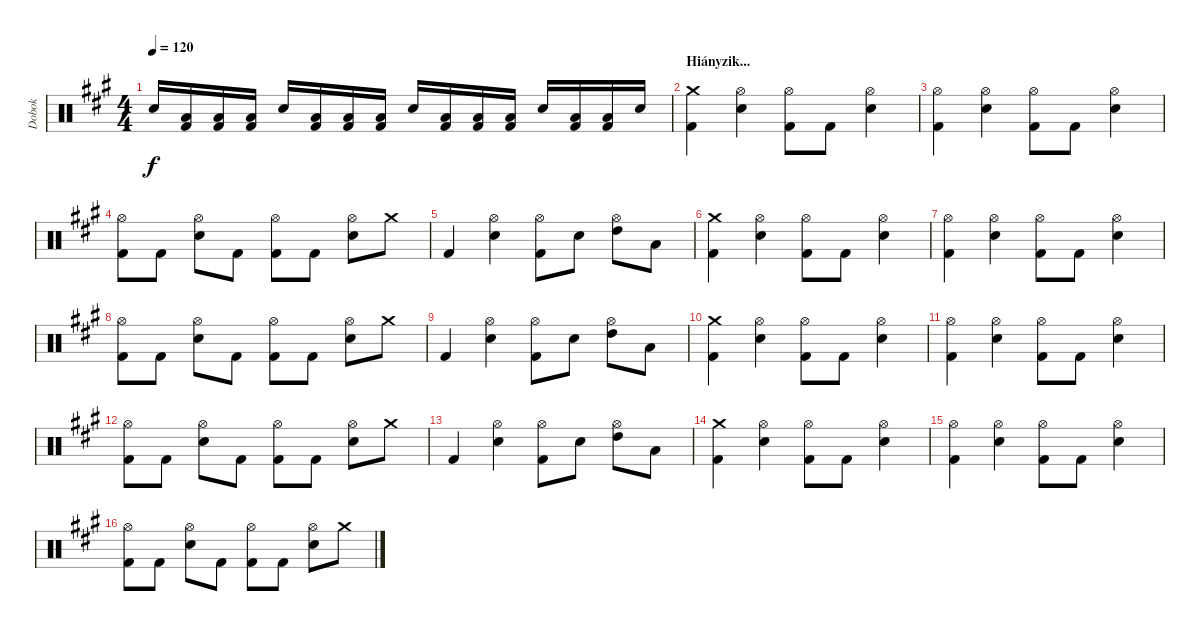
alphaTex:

\track ("Dobok" "Dobok") {instrument percussion}
\staff {score}
\articulation defaults
\ts (4 4)
\tempo 120
\clef neutral
\ks a "Snare (hit) 2".16{dy f}
("Low Floor Tom (hit)" "Kick (hit) 2").16 ("Low Floor Tom (hit)" "Kick (hit) 2").16 ("Low Floor Tom (hit)" "Kick (hit) 2").16 "Snare (hit) 2".16 ("Low Floor Tom (hit)" "Kick (hit) 2").16 ("Low Floor Tom (hit)" "Kick (hit) 2").16 ("Low Floor Tom (hit)" "Kick (hit) 2").16 "Snare (hit) 2".16 ("Low Floor Tom (hit)" "Kick (hit) 2").16 ("Low Floor Tom (hit)" "Kick (hit) 2").16 ("Low Floor Tom (hit)" "Kick (hit) 2").16 "Snare (hit) 2".16 ("Low Floor Tom (hit)" "Kick (hit) 2").16 ("Low Floor Tom (hit)" "Kick (hit) 2").16 "Snare (hit) 2".16 |
\section ("" "Hiányzik...")
("Crash medium (hit)" "Kick (hit) 2").4 ("Hi-Hat (open)" "Snare (hit) 2").4 ("Hi-Hat (open)" "Kick (hit) 2").8 "Kick (hit) 2".8 ("Hi-Hat (open)" "Snare (hit) 2").4 |
("Hi-Hat (open)" "Kick (hit) 2").4 ("Hi-Hat (open)" "Snare (hit) 2").4 ("Hi-Hat (open)" "Kick (hit) 2").8 "Kick (hit) 2".8 ("Hi-Hat (open)" "Snare (hit) 2").4 |
("Hi-Hat (open)" "Kick (hit) 2").8 "Kick (hit) 2".8 ("Hi-Hat (open)" "Snare (hit) 2").8 "Kick (hit) 2".8 ("Hi-Hat (open)" "Kick (hit) 2").8 "Kick (hit) 2".8 ("Hi-Hat (open)" "Snare (hit) 2").8 "Crash medium (hit)".8 |
"Kick (hit) 2".4 ("Hi-Hat (open)" "Snare (hit) 2").4 ("Hi-Hat (open)" "Kick (hit) 2").8 "Snare (hit) 2".8 ("Hi-Hat (open)" "High Tom (hit)").8 "Low Tom (hit)".8 |
("Crash medium (hit)" "Kick (hit) 2").4 ("Hi-Hat (open)" "Snare (hit) 2").4 ("Hi-Hat (open)" "Kick (hit) 2").8 "Kick (hit) 2".8 ("Hi-Hat (open)" "Snare (hit) 2").4 |
("Hi-Hat (open)" "Kick (hit) 2").4 ("Hi-Hat (open)" "Snare (hit) 2").4 ("Hi-Hat (open)" "Kick (hit) 2").8 "Kick (hit) 2".8 ("Hi-Hat (open)" "Snare (hit) 2").4 |
("Hi-Hat (open)" "Kick (hit) 2").8 "Kick (hit) 2".8 ("Hi-Hat (open)" "Snare (hit) 2").8 "Kick (hit) 2".8 ("Hi-Hat (open)" "Kick (hit) 2").8 "Kick (hit) 2".8 ("Hi-Hat (open)" "Snare (hit) 2").8 "Crash medium (hit)".8 |
"Kick (hit) 2".4 ("Hi-Hat (open)" "Snare (hit) 2").4 ("Hi-Hat (open)" "Kick (hit) 2").8 "Snare (hit) 2".8 ("Hi-Hat (open)" "High Tom (hit)").8 "Low Tom (hit)".8 |
("Crash medium (hit)" "Kick (hit) 2").4 ("Hi-Hat (open)" "Snare (hit) 2").4 ("Hi-Hat (open)" "Kick (hit) 2").8 "Kick (hit) 2".8 ("Hi-Hat (open)" "Snare (hit) 2").4 |
("Hi-Hat (open)" "Kick (hit) 2").4 ("Hi-Hat (open)" "Snare (hit) 2").4 ("Hi-Hat (open)" "Kick (hit) 2").8 "Kick (hit) 2".8 ("Hi-Hat (open)" "Snare (hit) 2").4 |
("Hi-Hat (open)" "Kick (hit) 2").8 "Kick (hit) 2".8 ("Hi-Hat (open)" "Snare (hit) 2").8 "Kick (hit) 2".8 ("Hi-Hat (open)" "Kick (hit) 2").8 "Kick (hit) 2".8 ("Hi-Hat (open)" "Snare (hit) 2").8 "Crash medium (hit)".8 |
"Kick (hit) 2".4 ("Hi-Hat (open)" "Snare (hit) 2").4 ("Hi-Hat (open)" "Kick (hit) 2").8 "Snare (hit) 2".8 ("Hi-Hat (open)" "High Tom (hit)").8 "Low Tom (hit)".8 |
("Crash medium (hit)" "Kick (hit) 2").4 ("Hi-Hat (open)" "Snare (hit) 2").4 ("Hi-Hat (open)" "Kick (hit) 2").8 "Kick (hit) 2".8 ("Hi-Hat (open)" "Snare (hit) 2").4 |
("Hi-Hat (open)" "Kick (hit) 2").4 ("Hi-Hat (open)" "Snare (hit) 2").4 ("Hi-Hat (open)" "Kick (hit) 2").8 "Kick (hit) 2".8 ("Hi-Hat (open)" "Snare (hit) 2").4 |
("Hi-Hat (open)" "Kick (hit) 2").8 "Kick (hit) 2".8 ("Hi-Hat (open)" "Snare (hit) 2").8 "Kick (hit) 2".8 ("Hi-Hat (open)" "Kick (hit) 2").8 "Kick (hit) 2".8 ("Hi-Hat (open)" "Snare (hit) 2").8 "Crash medium (hit)".8
